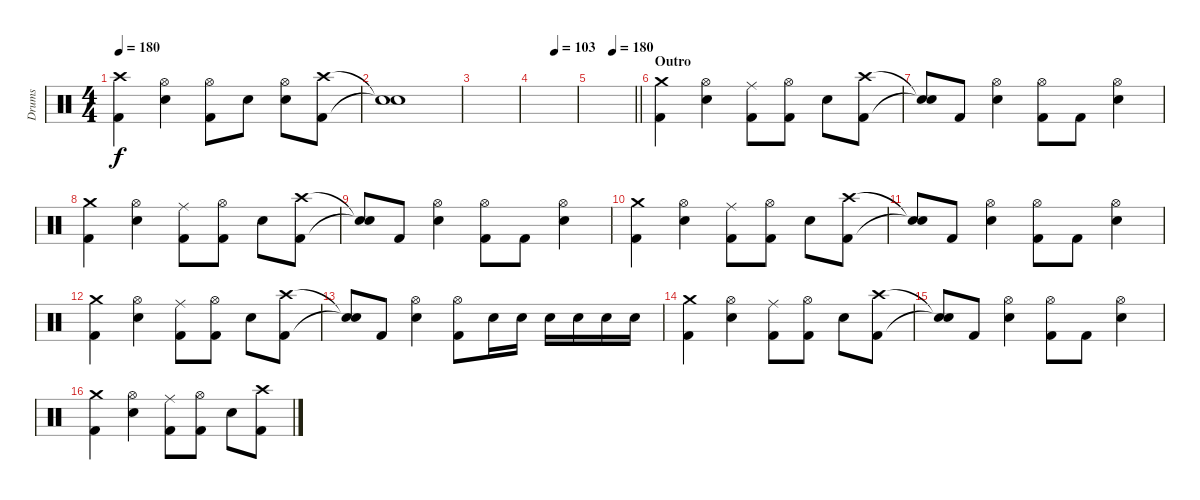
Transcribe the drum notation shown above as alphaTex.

\track ("Drums" "Drums") {instrument percussion}
\staff {score}
\articulation defaults
\ts (4 4)
\tempo 180
\clef neutral
\ks c
("Crash high (hit)" "Kick (hit) 2").4{dy f} ("Hi-Hat (open)" "Electric Snare (hit)").4 ("Hi-Hat (open)" "Kick (hit) 2").8 "Electric Snare (hit)".8 ("Hi-Hat (open)" "Electric Snare (hit)").8 ("Crash high (hit)" "Kick (hit) 2").8 |
("Snare (hit)"{t} "Snare (hit)"{t}).1 |
|
\tempo (103 0.5)
|
\tempo (180 0.5)
\barLineRight lightlight
|
\section ("" "Outro")
("Crash medium (hit)" "Kick (hit) 2").4 ("Hi-Hat (open)" "Electric Snare (hit)").4 ("Ride (middle)" "Kick (hit) 2").8 ("Hi-Hat (open)" "Kick (hit) 2").8 "Electric Snare (hit)".8 ("Crash high (hit)" "Kick (hit) 2").8 |
("Snare (hit)"{t} "Snare (hit)"{t}).8 "Kick (hit) 2".8 ("Hi-Hat (open)" "Electric Snare (hit)").4 ("Hi-Hat (open)" "Kick (hit) 2").8 "Kick (hit) 2".8 ("Hi-Hat (open)" "Electric Snare (hit)").4 |
("Crash medium (hit)" "Kick (hit) 2").4 ("Hi-Hat (open)" "Electric Snare (hit)").4 ("Ride (middle)" "Kick (hit) 2").8 ("Hi-Hat (open)" "Kick (hit) 2").8 "Electric Snare (hit)".8 ("Crash high (hit)" "Kick (hit) 2").8 |
("Snare (hit)"{t} "Snare (hit)"{t}).8 "Kick (hit) 2".8 ("Hi-Hat (open)" "Electric Snare (hit)").4 ("Hi-Hat (open)" "Kick (hit) 2").8 "Kick (hit) 2".8 ("Hi-Hat (open)" "Electric Snare (hit)").4 |
("Crash medium (hit)" "Kick (hit) 2").4 ("Hi-Hat (open)" "Electric Snare (hit)").4 ("Ride (middle)" "Kick (hit) 2").8 ("Hi-Hat (open)" "Kick (hit) 2").8 "Electric Snare (hit)".8 ("Crash high (hit)" "Kick (hit) 2").8 |
("Snare (hit)"{t} "Snare (hit)"{t}).8 "Kick (hit) 2".8 ("Hi-Hat (open)" "Electric Snare (hit)").4 ("Hi-Hat (open)" "Kick (hit) 2").8 "Kick (hit) 2".8 ("Hi-Hat (open)" "Electric Snare (hit)").4 |
("Crash medium (hit)" "Kick (hit) 2").4 ("Hi-Hat (open)" "Electric Snare (hit)").4 ("Ride (middle)" "Kick (hit) 2").8 ("Hi-Hat (open)" "Kick (hit) 2").8 "Electric Snare (hit)".8 ("Crash high (hit)" "Kick (hit) 2").8 |
("Snare (hit)"{t} "Snare (hit)"{t}).8 "Kick (hit) 2".8 ("Hi-Hat (open)" "Electric Snare (hit)").4 ("Hi-Hat (open)" "Kick (hit) 2").8 "Electric Snare (hit)".16 "Electric Snare (hit)".16 "Electric Snare (hit)".16 "Electric Snare (hit)".16 "Electric Snare (hit)".16 "Electric Snare (hit)".16 |
("Crash medium (hit)" "Kick (hit) 2").4 ("Hi-Hat (open)" "Electric Snare (hit)").4 ("Ride (middle)" "Kick (hit) 2").8 ("Hi-Hat (open)" "Kick (hit) 2").8 "Electric Snare (hit)".8 ("Crash high (hit)" "Kick (hit) 2").8 |
("Snare (hit)"{t} "Snare (hit)"{t}).8 "Kick (hit) 2".8 ("Hi-Hat (open)" "Electric Snare (hit)").4 ("Hi-Hat (open)" "Kick (hit) 2").8 "Kick (hit) 2".8 ("Hi-Hat (open)" "Electric Snare (hit)").4 |
("Crash medium (hit)" "Kick (hit) 2").4 ("Hi-Hat (open)" "Electric Snare (hit)").4 ("Ride (middle)" "Kick (hit) 2").8 ("Hi-Hat (open)" "Kick (hit) 2").8 "Electric Snare (hit)".8 ("Crash high (hit)" "Kick (hit) 2").8
